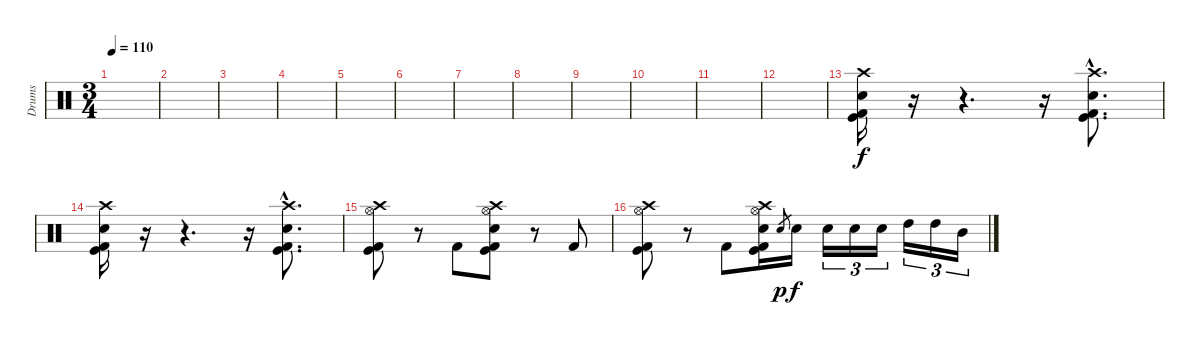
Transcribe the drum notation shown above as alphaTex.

\track ("Drums" "Drums") {instrument percussion}
\staff {score}
\articulation defaults
\ts (3 4)
\tempo 110
\clef neutral
\ks c
|
|
|
|
|
|
|
|
|
|
|
|
("Crash high (hit)" "Electric Snare (hit)" "Kick (hit)" "Kick (hit) 2").16 r.16{volume 0} r.4{d} r.16{volume 16} ("Crash high (hit)"{hac} "Electric Snare (hit)"{hac} "Kick (hit)"{hac} "Kick (hit) 2"{hac}).8{d} |
("Crash high (hit)" "Electric Snare (hit)" "Kick (hit)" "Kick (hit) 2").16 r.16{volume 0} r.4{d} r.16{volume 16} ("Crash high (hit)"{hac} "Electric Snare (hit)"{hac} "Kick (hit)"{hac} "Kick (hit) 2"{hac}).8{d} |
("Crash high (hit)" "Hi-Hat (open)" "Kick (hit)" "Kick (hit) 2").8 r.8 "Kick (hit) 2".8 ("Crash high (hit)" "Electric Snare (hit)" "Hi-Hat (open)" "Kick (hit)" "Kick (hit) 2").8 r.8 "Kick (hit) 2".8 |
("Crash high (hit)" "Hi-Hat (open)" "Kick (hit)" "Kick (hit) 2").8 r.8 "Kick (hit) 2".8 ("Crash high (hit)" "Electric Snare (hit)" "Hi-Hat (open)" "Kick (hit)" "Kick (hit) 2").16 "Snare (hit) 2".8{gr dy p} "Electric Snare (hit)".16{dy f} "Electric Snare (hit)".16{tu (3 2)} "Electric Snare (hit)".16{tu (3 2)} "Electric Snare (hit)".16{tu (3 2)} "High Tom (hit)".16{tu (3 2)} "High Tom (hit)".16{tu (3 2)} "Mid Tom (hit)".16{tu (3 2)}
